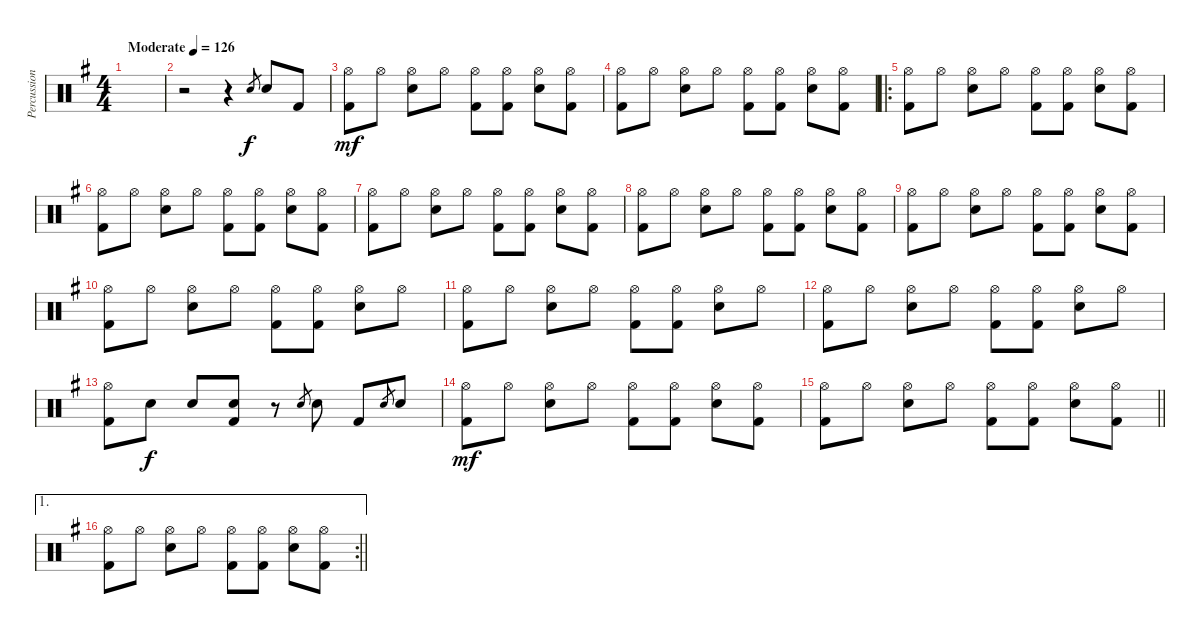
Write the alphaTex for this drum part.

\track ("Percussion" "Percussion") {instrument percussion}
\staff {score}
\articulation defaults
\ts (4 4)
\tempo (126 "Moderate")
\clef neutral
\ks g
|
r.2 r.4 "Snare (hit) 2".8{gr} "Snare (hit) 2".8 "Kick (hit) 2".8 |
("Hi-Hat (open)" "Kick (hit) 2").8{dy mf} "Hi-Hat (open)".8 ("Hi-Hat (open)" "Snare (hit) 2").8 "Hi-Hat (open)".8 ("Hi-Hat (open)" "Kick (hit) 2").8 ("Hi-Hat (open)" "Kick (hit) 2").8 ("Hi-Hat (open)" "Snare (hit) 2").8 ("Hi-Hat (open)" "Kick (hit) 2").8 |
("Hi-Hat (open)" "Kick (hit) 2").8 "Hi-Hat (open)".8 ("Hi-Hat (open)" "Snare (hit) 2").8 "Hi-Hat (open)".8 ("Hi-Hat (open)" "Kick (hit) 2").8 ("Hi-Hat (open)" "Kick (hit) 2").8 ("Hi-Hat (open)" "Snare (hit) 2").8 ("Hi-Hat (open)" "Kick (hit) 2").8 |
\ro
("Hi-Hat (open)" "Kick (hit) 2").8 "Hi-Hat (open)".8 ("Hi-Hat (open)" "Snare (hit) 2").8 "Hi-Hat (open)".8 ("Hi-Hat (open)" "Kick (hit) 2").8 ("Hi-Hat (open)" "Kick (hit) 2").8 ("Hi-Hat (open)" "Snare (hit) 2").8 ("Hi-Hat (open)" "Kick (hit) 2").8 |
("Hi-Hat (open)" "Kick (hit) 2").8 "Hi-Hat (open)".8 ("Hi-Hat (open)" "Snare (hit) 2").8 "Hi-Hat (open)".8 ("Hi-Hat (open)" "Kick (hit) 2").8 ("Hi-Hat (open)" "Kick (hit) 2").8 ("Hi-Hat (open)" "Snare (hit) 2").8 ("Hi-Hat (open)" "Kick (hit) 2").8 |
("Hi-Hat (open)" "Kick (hit) 2").8 "Hi-Hat (open)".8 ("Hi-Hat (open)" "Snare (hit) 2").8 "Hi-Hat (open)".8 ("Hi-Hat (open)" "Kick (hit) 2").8 ("Hi-Hat (open)" "Kick (hit) 2").8 ("Hi-Hat (open)" "Snare (hit) 2").8 ("Hi-Hat (open)" "Kick (hit) 2").8 |
("Hi-Hat (open)" "Kick (hit) 2").8 "Hi-Hat (open)".8 ("Hi-Hat (open)" "Snare (hit) 2").8 "Hi-Hat (open)".8 ("Hi-Hat (open)" "Kick (hit) 2").8 ("Hi-Hat (open)" "Kick (hit) 2").8 ("Hi-Hat (open)" "Snare (hit) 2").8 ("Hi-Hat (open)" "Kick (hit) 2").8 |
("Hi-Hat (open)" "Kick (hit) 2").8 "Hi-Hat (open)".8 ("Hi-Hat (open)" "Snare (hit) 2").8 "Hi-Hat (open)".8 ("Hi-Hat (open)" "Kick (hit) 2").8 ("Hi-Hat (open)" "Kick (hit) 2").8 ("Hi-Hat (open)" "Snare (hit) 2").8 ("Hi-Hat (open)" "Kick (hit) 2").8 |
("Hi-Hat (open)" "Kick (hit) 2").8 "Hi-Hat (open)".8 ("Hi-Hat (open)" "Snare (hit) 2").8 "Hi-Hat (open)".8 ("Hi-Hat (open)" "Kick (hit) 2").8 ("Hi-Hat (open)" "Kick (hit) 2").8 ("Hi-Hat (open)" "Snare (hit) 2").8 "Hi-Hat (open)".8 |
("Hi-Hat (open)" "Kick (hit) 2").8 "Hi-Hat (open)".8 ("Hi-Hat (open)" "Snare (hit) 2").8 "Hi-Hat (open)".8 ("Hi-Hat (open)" "Kick (hit) 2").8 ("Hi-Hat (open)" "Kick (hit) 2").8 ("Hi-Hat (open)" "Snare (hit) 2").8 "Hi-Hat (open)".8 |
("Hi-Hat (open)" "Kick (hit) 2").8 "Hi-Hat (open)".8 ("Hi-Hat (open)" "Snare (hit) 2").8 "Hi-Hat (open)".8 ("Hi-Hat (open)" "Kick (hit) 2").8 ("Hi-Hat (open)" "Kick (hit) 2").8 ("Hi-Hat (open)" "Snare (hit) 2").8 "Hi-Hat (open)".8 |
("Hi-Hat (open)" "Kick (hit) 2").8 "Snare (hit) 2".8{dy f} "Snare (hit) 2".8 ("Snare (hit) 2" "Kick (hit) 2").8 r.8 "Snare (hit) 2".8{gr} "Snare (hit) 2".8 "Kick (hit) 2".8 "Snare (hit) 2".8{gr} "Snare (hit) 2".8 |
("Hi-Hat (open)" "Kick (hit) 2").8{dy mf} "Hi-Hat (open)".8 ("Hi-Hat (open)" "Snare (hit) 2").8 "Hi-Hat (open)".8 ("Hi-Hat (open)" "Kick (hit) 2").8 ("Hi-Hat (open)" "Kick (hit) 2").8 ("Hi-Hat (open)" "Snare (hit) 2").8 ("Hi-Hat (open)" "Kick (hit) 2").8 |
\barLineRight lightlight
("Hi-Hat (open)" "Kick (hit) 2").8 "Hi-Hat (open)".8 ("Hi-Hat (open)" "Snare (hit) 2").8 "Hi-Hat (open)".8 ("Hi-Hat (open)" "Kick (hit) 2").8 ("Hi-Hat (open)" "Kick (hit) 2").8 ("Hi-Hat (open)" "Snare (hit) 2").8 ("Hi-Hat (open)" "Kick (hit) 2").8 |
\ae 1
\rc 2
\barLineRight lightlight
("Hi-Hat (open)" "Kick (hit) 2").8 "Hi-Hat (open)".8 ("Hi-Hat (open)" "Snare (hit) 2").8 "Hi-Hat (open)".8 ("Hi-Hat (open)" "Kick (hit) 2").8 ("Hi-Hat (open)" "Kick (hit) 2").8 ("Hi-Hat (open)" "Snare (hit) 2").8 ("Hi-Hat (open)" "Kick (hit) 2").8
